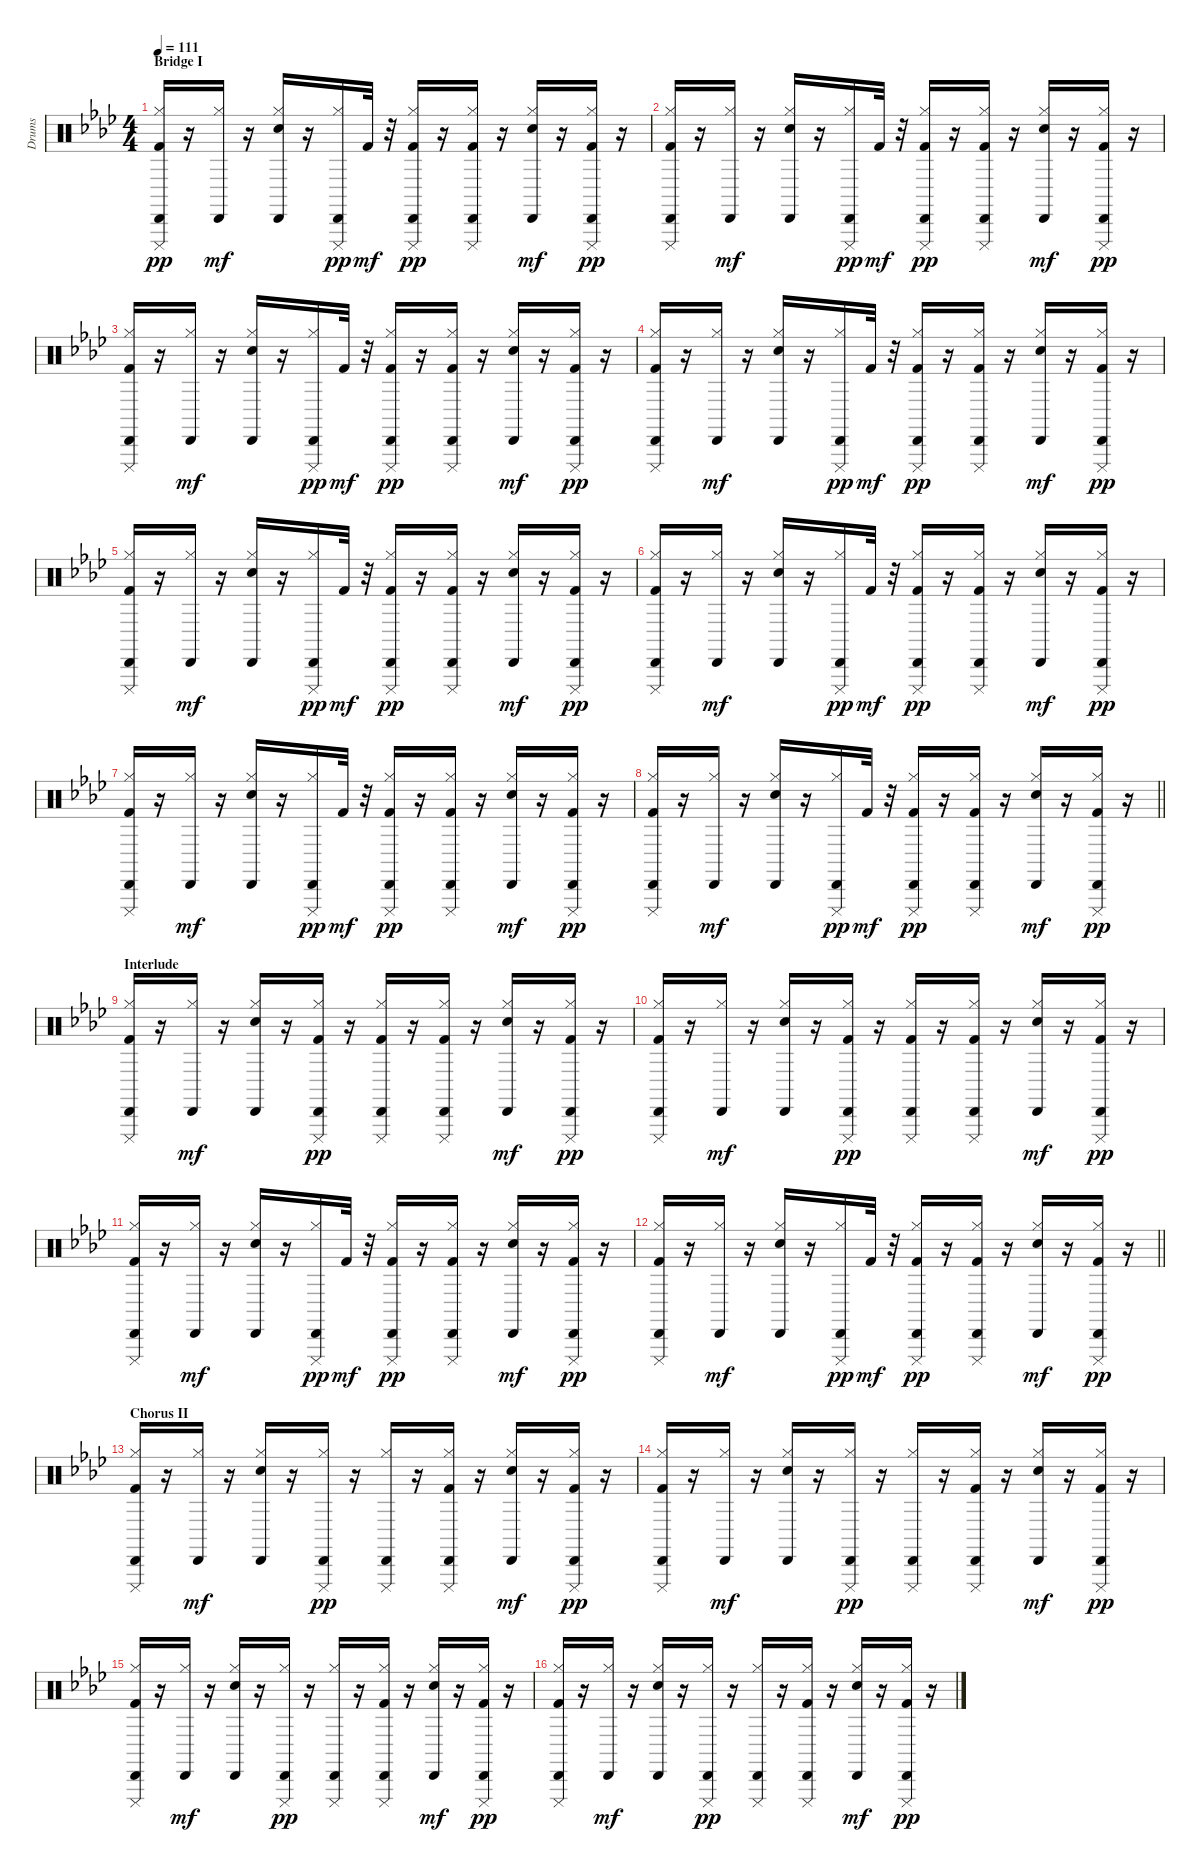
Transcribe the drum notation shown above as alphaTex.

\track ("Drums" "Drums") {instrument percussion}
\staff {score}
\articulation defaults
\ts (4 4)
\section ("" "Bridge I")
\tempo 111
\clef neutral
\ks ab
("Kick (hit) 2" "Hi-Hat (closed)" "Cabasa (hit)" "Cuica (mute)").16{dy pp} r.16 ("Hi-Hat (closed)" "Cabasa (hit)").16{dy mf} r.16 ("Electric Snare (hit)" "Hi-Hat (closed)" "Cabasa (hit)").16 r.16 ("Hi-Hat (closed)" "Cabasa (hit)" "Cuica (mute)").16{dy pp} "Kick (hit) 2".32{dy mf} r.32 ("Kick (hit) 2" "Hi-Hat (closed)" "Cabasa (hit)" "Cuica (mute)").16{dy pp} r.16 ("Kick (hit) 2" "Hi-Hat (closed)" "Cabasa (hit)" "Cuica (mute)").16 r.16 ("Electric Snare (hit)" "Hi-Hat (closed)" "Cabasa (hit)").16{dy mf} r.16 ("Kick (hit) 2" "Hi-Hat (closed)" "Cabasa (hit)" "Cuica (mute)").16{dy pp} r.16 |
("Kick (hit) 2" "Hi-Hat (closed)" "Cabasa (hit)" "Cuica (mute)").16 r.16 ("Hi-Hat (closed)" "Cabasa (hit)").16{dy mf} r.16 ("Electric Snare (hit)" "Hi-Hat (closed)" "Cabasa (hit)").16 r.16 ("Hi-Hat (closed)" "Cabasa (hit)" "Cuica (mute)").16{dy pp} "Kick (hit) 2".32{dy mf} r.32 ("Kick (hit) 2" "Hi-Hat (closed)" "Cabasa (hit)" "Cuica (mute)").16{dy pp} r.16 ("Kick (hit) 2" "Hi-Hat (closed)" "Cabasa (hit)" "Cuica (mute)").16 r.16 ("Electric Snare (hit)" "Hi-Hat (closed)" "Cabasa (hit)").16{dy mf} r.16 ("Kick (hit) 2" "Hi-Hat (closed)" "Cabasa (hit)" "Cuica (mute)").16{dy pp} r.16 |
("Kick (hit) 2" "Hi-Hat (closed)" "Cabasa (hit)" "Cuica (mute)").16 r.16 ("Hi-Hat (closed)" "Cabasa (hit)").16{dy mf} r.16 ("Electric Snare (hit)" "Hi-Hat (closed)" "Cabasa (hit)").16 r.16 ("Hi-Hat (closed)" "Cabasa (hit)" "Cuica (mute)").16{dy pp} "Kick (hit) 2".32{dy mf} r.32 ("Kick (hit) 2" "Hi-Hat (closed)" "Cabasa (hit)" "Cuica (mute)").16{dy pp} r.16 ("Kick (hit) 2" "Hi-Hat (closed)" "Cabasa (hit)" "Cuica (mute)").16 r.16 ("Electric Snare (hit)" "Hi-Hat (closed)" "Cabasa (hit)").16{dy mf} r.16 ("Kick (hit) 2" "Hi-Hat (closed)" "Cabasa (hit)" "Cuica (mute)").16{dy pp} r.16 |
("Kick (hit) 2" "Hi-Hat (closed)" "Cabasa (hit)" "Cuica (mute)").16 r.16 ("Hi-Hat (closed)" "Cabasa (hit)").16{dy mf} r.16 ("Electric Snare (hit)" "Hi-Hat (closed)" "Cabasa (hit)").16 r.16 ("Hi-Hat (closed)" "Cabasa (hit)" "Cuica (mute)").16{dy pp} "Kick (hit) 2".32{dy mf} r.32 ("Kick (hit) 2" "Hi-Hat (closed)" "Cabasa (hit)" "Cuica (mute)").16{dy pp} r.16 ("Kick (hit) 2" "Hi-Hat (closed)" "Cabasa (hit)" "Cuica (mute)").16 r.16 ("Electric Snare (hit)" "Hi-Hat (closed)" "Cabasa (hit)").16{dy mf} r.16 ("Kick (hit) 2" "Hi-Hat (closed)" "Cabasa (hit)" "Cuica (mute)").16{dy pp} r.16 |
("Kick (hit) 2" "Hi-Hat (closed)" "Cabasa (hit)" "Cuica (mute)").16 r.16 ("Hi-Hat (closed)" "Cabasa (hit)").16{dy mf} r.16 ("Electric Snare (hit)" "Hi-Hat (closed)" "Cabasa (hit)").16 r.16 ("Hi-Hat (closed)" "Cabasa (hit)" "Cuica (mute)").16{dy pp} "Kick (hit) 2".32{dy mf} r.32 ("Kick (hit) 2" "Hi-Hat (closed)" "Cabasa (hit)" "Cuica (mute)").16{dy pp} r.16 ("Kick (hit) 2" "Hi-Hat (closed)" "Cabasa (hit)" "Cuica (mute)").16 r.16 ("Electric Snare (hit)" "Hi-Hat (closed)" "Cabasa (hit)").16{dy mf} r.16 ("Kick (hit) 2" "Hi-Hat (closed)" "Cabasa (hit)" "Cuica (mute)").16{dy pp} r.16 |
("Kick (hit) 2" "Hi-Hat (closed)" "Cabasa (hit)" "Cuica (mute)").16 r.16 ("Hi-Hat (closed)" "Cabasa (hit)").16{dy mf} r.16 ("Electric Snare (hit)" "Hi-Hat (closed)" "Cabasa (hit)").16 r.16 ("Hi-Hat (closed)" "Cabasa (hit)" "Cuica (mute)").16{dy pp} "Kick (hit) 2".32{dy mf} r.32 ("Kick (hit) 2" "Hi-Hat (closed)" "Cabasa (hit)" "Cuica (mute)").16{dy pp} r.16 ("Kick (hit) 2" "Hi-Hat (closed)" "Cabasa (hit)" "Cuica (mute)").16 r.16 ("Electric Snare (hit)" "Hi-Hat (closed)" "Cabasa (hit)").16{dy mf} r.16 ("Kick (hit) 2" "Hi-Hat (closed)" "Cabasa (hit)" "Cuica (mute)").16{dy pp} r.16 |
("Kick (hit) 2" "Hi-Hat (closed)" "Cabasa (hit)" "Cuica (mute)").16 r.16 ("Hi-Hat (closed)" "Cabasa (hit)").16{dy mf} r.16 ("Electric Snare (hit)" "Hi-Hat (closed)" "Cabasa (hit)").16 r.16 ("Hi-Hat (closed)" "Cabasa (hit)" "Cuica (mute)").16{dy pp} "Kick (hit) 2".32{dy mf} r.32 ("Kick (hit) 2" "Hi-Hat (closed)" "Cabasa (hit)" "Cuica (mute)").16{dy pp} r.16 ("Kick (hit) 2" "Hi-Hat (closed)" "Cabasa (hit)" "Cuica (mute)").16 r.16 ("Electric Snare (hit)" "Hi-Hat (closed)" "Cabasa (hit)").16{dy mf} r.16 ("Kick (hit) 2" "Hi-Hat (closed)" "Cabasa (hit)" "Cuica (mute)").16{dy pp} r.16 |
\barLineRight lightlight
("Kick (hit) 2" "Hi-Hat (closed)" "Cabasa (hit)" "Cuica (mute)").16 r.16 ("Hi-Hat (closed)" "Cabasa (hit)").16{dy mf} r.16 ("Electric Snare (hit)" "Hi-Hat (closed)" "Cabasa (hit)").16 r.16 ("Hi-Hat (closed)" "Cabasa (hit)" "Cuica (mute)").16{dy pp} "Kick (hit) 2".32{dy mf} r.32 ("Kick (hit) 2" "Hi-Hat (closed)" "Cabasa (hit)" "Cuica (mute)").16{dy pp} r.16 ("Kick (hit) 2" "Hi-Hat (closed)" "Cabasa (hit)" "Cuica (mute)").16 r.16 ("Electric Snare (hit)" "Hi-Hat (closed)" "Cabasa (hit)").16{dy mf} r.16 ("Kick (hit) 2" "Hi-Hat (closed)" "Cabasa (hit)" "Cuica (mute)").16{dy pp} r.16 |
\section ("" "Interlude")
("Kick (hit) 2" "Hi-Hat (closed)" "Cabasa (hit)" "Cuica (mute)").16 r.16 ("Hi-Hat (closed)" "Cabasa (hit)").16{dy mf} r.16 ("Electric Snare (hit)" "Hi-Hat (closed)" "Cabasa (hit)").16 r.16 ("Kick (hit) 2" "Hi-Hat (closed)" "Cabasa (hit)" "Cuica (mute)").16{dy pp} r.16 ("Kick (hit) 2" "Hi-Hat (closed)" "Cabasa (hit)" "Cuica (mute)").16 r.16 ("Kick (hit) 2" "Hi-Hat (closed)" "Cabasa (hit)" "Cuica (mute)").16 r.16 ("Electric Snare (hit)" "Hi-Hat (closed)" "Cabasa (hit)").16{dy mf} r.16 ("Kick (hit) 2" "Hi-Hat (closed)" "Cabasa (hit)" "Cuica (mute)").16{dy pp} r.16 |
("Kick (hit) 2" "Hi-Hat (closed)" "Cabasa (hit)" "Cuica (mute)").16 r.16 ("Hi-Hat (closed)" "Cabasa (hit)").16{dy mf} r.16 ("Electric Snare (hit)" "Hi-Hat (closed)" "Cabasa (hit)").16 r.16 ("Kick (hit) 2" "Hi-Hat (closed)" "Cabasa (hit)" "Cuica (mute)").16{dy pp} r.16 ("Kick (hit) 2" "Hi-Hat (closed)" "Cabasa (hit)" "Cuica (mute)").16 r.16 ("Kick (hit) 2" "Hi-Hat (closed)" "Cabasa (hit)" "Cuica (mute)").16 r.16 ("Electric Snare (hit)" "Hi-Hat (closed)" "Cabasa (hit)").16{dy mf} r.16 ("Kick (hit) 2" "Hi-Hat (closed)" "Cabasa (hit)" "Cuica (mute)").16{dy pp} r.16 |
("Kick (hit) 2" "Hi-Hat (closed)" "Cabasa (hit)" "Cuica (mute)").16 r.16 ("Hi-Hat (closed)" "Cabasa (hit)").16{dy mf} r.16 ("Electric Snare (hit)" "Hi-Hat (closed)" "Cabasa (hit)").16 r.16 ("Hi-Hat (closed)" "Cabasa (hit)" "Cuica (mute)").16{dy pp} "Kick (hit) 2".32{dy mf} r.32 ("Kick (hit) 2" "Hi-Hat (closed)" "Cabasa (hit)" "Cuica (mute)").16{dy pp} r.16 ("Kick (hit) 2" "Hi-Hat (closed)" "Cabasa (hit)" "Cuica (mute)").16 r.16 ("Electric Snare (hit)" "Hi-Hat (closed)" "Cabasa (hit)").16{dy mf} r.16 ("Kick (hit) 2" "Hi-Hat (closed)" "Cabasa (hit)" "Cuica (mute)").16{dy pp} r.16 |
\barLineRight lightlight
("Kick (hit) 2" "Hi-Hat (closed)" "Cabasa (hit)" "Cuica (mute)").16 r.16 ("Hi-Hat (closed)" "Cabasa (hit)").16{dy mf} r.16 ("Electric Snare (hit)" "Hi-Hat (closed)" "Cabasa (hit)").16 r.16 ("Hi-Hat (closed)" "Cabasa (hit)" "Cuica (mute)").16{dy pp} "Kick (hit) 2".32{dy mf} r.32 ("Kick (hit) 2" "Hi-Hat (closed)" "Cabasa (hit)" "Cuica (mute)").16{dy pp} r.16 ("Kick (hit) 2" "Hi-Hat (closed)" "Cabasa (hit)" "Cuica (mute)").16 r.16 ("Electric Snare (hit)" "Hi-Hat (closed)" "Cabasa (hit)").16{dy mf} r.16 ("Kick (hit) 2" "Hi-Hat (closed)" "Cabasa (hit)" "Cuica (mute)").16{dy pp} r.16 |
\section ("" "Chorus II")
("Kick (hit) 2" "Hi-Hat (closed)" "Cabasa (hit)" "Cuica (mute)").16 r.16 ("Hi-Hat (closed)" "Cabasa (hit)").16{dy mf} r.16 ("Electric Snare (hit)" "Hi-Hat (closed)" "Cabasa (hit)").16 r.16 ("Hi-Hat (closed)" "Cabasa (hit)" "Cuica (mute)").16{dy pp} r.16 ("Hi-Hat (closed)" "Cabasa (hit)" "Cuica (mute)").16 r.16 ("Kick (hit) 2" "Hi-Hat (closed)" "Cabasa (hit)" "Cuica (mute)").16 r.16 ("Electric Snare (hit)" "Hi-Hat (closed)" "Cabasa (hit)").16{dy mf} r.16 ("Kick (hit) 2" "Hi-Hat (closed)" "Cabasa (hit)" "Cuica (mute)").16{dy pp} r.16 |
("Kick (hit) 2" "Hi-Hat (closed)" "Cabasa (hit)" "Cuica (mute)").16 r.16 ("Hi-Hat (closed)" "Cabasa (hit)").16{dy mf} r.16 ("Electric Snare (hit)" "Hi-Hat (closed)" "Cabasa (hit)").16 r.16 ("Hi-Hat (closed)" "Cabasa (hit)" "Cuica (mute)").16{dy pp} r.16 ("Hi-Hat (closed)" "Cabasa (hit)" "Cuica (mute)").16 r.16 ("Kick (hit) 2" "Hi-Hat (closed)" "Cabasa (hit)" "Cuica (mute)").16 r.16 ("Electric Snare (hit)" "Hi-Hat (closed)" "Cabasa (hit)").16{dy mf} r.16 ("Kick (hit) 2" "Hi-Hat (closed)" "Cabasa (hit)" "Cuica (mute)").16{dy pp} r.16 |
("Kick (hit) 2" "Hi-Hat (closed)" "Cabasa (hit)" "Cuica (mute)").16 r.16 ("Hi-Hat (closed)" "Cabasa (hit)").16{dy mf} r.16 ("Electric Snare (hit)" "Hi-Hat (closed)" "Cabasa (hit)").16 r.16 ("Hi-Hat (closed)" "Cabasa (hit)" "Cuica (mute)").16{dy pp} r.16 ("Hi-Hat (closed)" "Cabasa (hit)" "Cuica (mute)").16 r.16 ("Kick (hit) 2" "Hi-Hat (closed)" "Cabasa (hit)" "Cuica (mute)").16 r.16 ("Electric Snare (hit)" "Hi-Hat (closed)" "Cabasa (hit)").16{dy mf} r.16 ("Kick (hit) 2" "Hi-Hat (closed)" "Cabasa (hit)" "Cuica (mute)").16{dy pp} r.16 |
("Kick (hit) 2" "Hi-Hat (closed)" "Cabasa (hit)" "Cuica (mute)").16 r.16 ("Hi-Hat (closed)" "Cabasa (hit)").16{dy mf} r.16 ("Electric Snare (hit)" "Hi-Hat (closed)" "Cabasa (hit)").16 r.16 ("Hi-Hat (closed)" "Cabasa (hit)" "Cuica (mute)").16{dy pp} r.16 ("Hi-Hat (closed)" "Cabasa (hit)" "Cuica (mute)").16 r.16 ("Kick (hit) 2" "Hi-Hat (closed)" "Cabasa (hit)" "Cuica (mute)").16 r.16 ("Electric Snare (hit)" "Hi-Hat (closed)" "Cabasa (hit)").16{dy mf} r.16 ("Kick (hit) 2" "Hi-Hat (closed)" "Cabasa (hit)" "Cuica (mute)").16{dy pp} r.16
